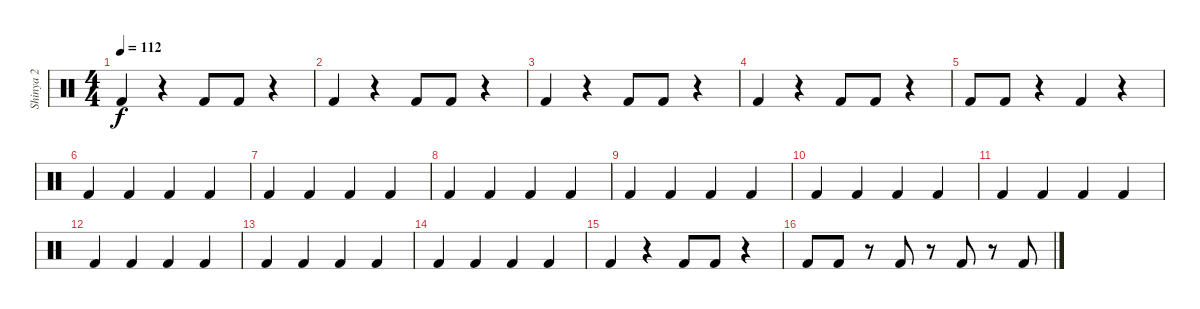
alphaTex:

\track ("Shinya 2" "Shinya 2") {instrument percussion}
\staff {score}
\articulation defaults
\ts (4 4)
\tempo 112
\clef neutral
\ks c "Kick (hit) 2".4{dy f}
r.4 "Kick (hit) 2".8 "Kick (hit) 2".8 r.4 |
"Kick (hit) 2".4 r.4 "Kick (hit) 2".8 "Kick (hit) 2".8 r.4 |
"Kick (hit) 2".4 r.4 "Kick (hit) 2".8 "Kick (hit) 2".8 r.4 |
"Kick (hit) 2".4 r.4 "Kick (hit) 2".8 "Kick (hit) 2".8 r.4 |
"Kick (hit) 2".8 "Kick (hit) 2".8 r.4 "Kick (hit) 2".4 r.4 |
"Kick (hit) 2".4 "Kick (hit) 2".4 "Kick (hit) 2".4 "Kick (hit) 2".4 |
"Kick (hit) 2".4 "Kick (hit) 2".4 "Kick (hit) 2".4 "Kick (hit) 2".4 |
"Kick (hit) 2".4 "Kick (hit) 2".4 "Kick (hit) 2".4 "Kick (hit) 2".4 |
"Kick (hit) 2".4 "Kick (hit) 2".4 "Kick (hit) 2".4 "Kick (hit) 2".4 |
"Kick (hit) 2".4 "Kick (hit) 2".4 "Kick (hit) 2".4 "Kick (hit) 2".4 |
"Kick (hit) 2".4 "Kick (hit) 2".4 "Kick (hit) 2".4 "Kick (hit) 2".4 |
"Kick (hit) 2".4 "Kick (hit) 2".4 "Kick (hit) 2".4 "Kick (hit) 2".4 |
"Kick (hit) 2".4 "Kick (hit) 2".4 "Kick (hit) 2".4 "Kick (hit) 2".4 |
"Kick (hit) 2".4 "Kick (hit) 2".4 "Kick (hit) 2".4 "Kick (hit) 2".4 |
"Kick (hit) 2".4 r.4 "Kick (hit) 2".8 "Kick (hit) 2".8 r.4 |
"Kick (hit) 2".8 "Kick (hit) 2".8 r.8 "Kick (hit) 2".8 r.8 "Kick (hit) 2".8 r.8 "Kick (hit) 2".8
